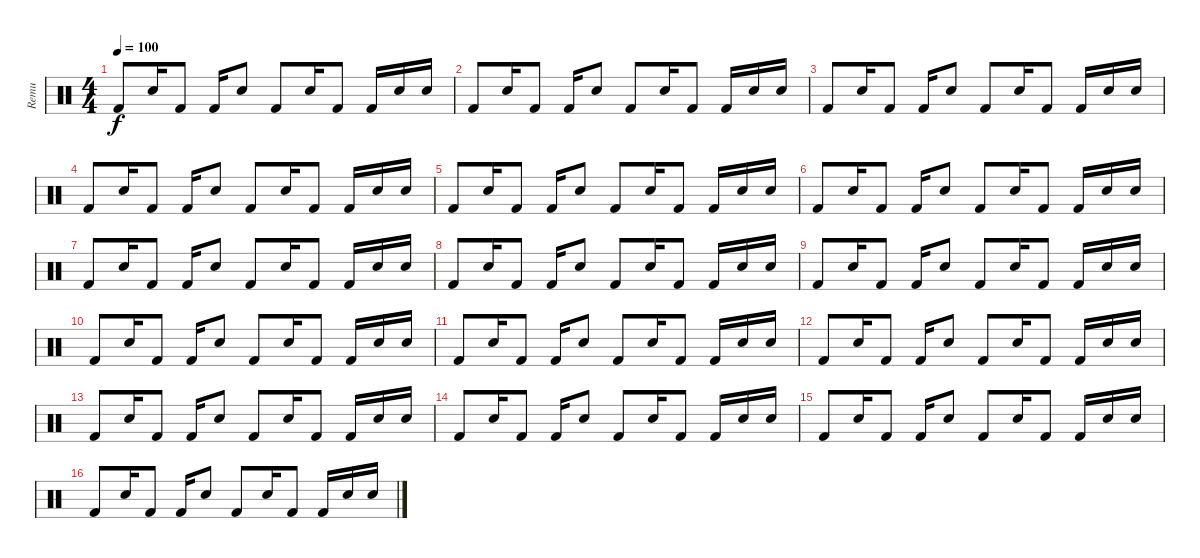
\track ("Remu" "Remu") {instrument percussion}
\staff {score}
\articulation defaults
\ts (4 4)
\tempo 100
\clef neutral
\ks c "Kick (hit) 2".8{dy f} "Snare (hit) 2".16 "Kick (hit) 2".8 "Kick (hit) 2".16 "Snare (hit) 2".8 "Kick (hit) 2".8 "Snare (hit) 2".16 "Kick (hit) 2".8 "Kick (hit) 2".16 "Snare (hit) 2".16 "Snare (hit) 2".16
|
"Kick (hit) 2".8 "Snare (hit) 2".16 "Kick (hit) 2".8 "Kick (hit) 2".16 "Snare (hit) 2".8 "Kick (hit) 2".8 "Snare (hit) 2".16 "Kick (hit) 2".8 "Kick (hit) 2".16 "Snare (hit) 2".16 "Snare (hit) 2".16 |
"Kick (hit) 2".8 "Snare (hit) 2".16 "Kick (hit) 2".8 "Kick (hit) 2".16 "Snare (hit) 2".8 "Kick (hit) 2".8 "Snare (hit) 2".16 "Kick (hit) 2".8 "Kick (hit) 2".16 "Snare (hit) 2".16 "Snare (hit) 2".16 |
"Kick (hit) 2".8 "Snare (hit) 2".16 "Kick (hit) 2".8 "Kick (hit) 2".16 "Snare (hit) 2".8 "Kick (hit) 2".8 "Snare (hit) 2".16 "Kick (hit) 2".8 "Kick (hit) 2".16 "Snare (hit) 2".16 "Snare (hit) 2".16 |
"Kick (hit) 2".8 "Snare (hit) 2".16 "Kick (hit) 2".8 "Kick (hit) 2".16 "Snare (hit) 2".8 "Kick (hit) 2".8 "Snare (hit) 2".16 "Kick (hit) 2".8 "Kick (hit) 2".16 "Snare (hit) 2".16 "Snare (hit) 2".16 |
"Kick (hit) 2".8 "Snare (hit) 2".16 "Kick (hit) 2".8 "Kick (hit) 2".16 "Snare (hit) 2".8 "Kick (hit) 2".8 "Snare (hit) 2".16 "Kick (hit) 2".8 "Kick (hit) 2".16 "Snare (hit) 2".16 "Snare (hit) 2".16 |
"Kick (hit) 2".8 "Snare (hit) 2".16 "Kick (hit) 2".8 "Kick (hit) 2".16 "Snare (hit) 2".8 "Kick (hit) 2".8 "Snare (hit) 2".16 "Kick (hit) 2".8 "Kick (hit) 2".16 "Snare (hit) 2".16 "Snare (hit) 2".16 |
"Kick (hit) 2".8 "Snare (hit) 2".16 "Kick (hit) 2".8 "Kick (hit) 2".16 "Snare (hit) 2".8 "Kick (hit) 2".8 "Snare (hit) 2".16 "Kick (hit) 2".8 "Kick (hit) 2".16 "Snare (hit) 2".16 "Snare (hit) 2".16 |
"Kick (hit) 2".8 "Snare (hit) 2".16 "Kick (hit) 2".8 "Kick (hit) 2".16 "Snare (hit) 2".8 "Kick (hit) 2".8 "Snare (hit) 2".16 "Kick (hit) 2".8 "Kick (hit) 2".16 "Snare (hit) 2".16 "Snare (hit) 2".16 |
"Kick (hit) 2".8 "Snare (hit) 2".16 "Kick (hit) 2".8 "Kick (hit) 2".16 "Snare (hit) 2".8 "Kick (hit) 2".8 "Snare (hit) 2".16 "Kick (hit) 2".8 "Kick (hit) 2".16 "Snare (hit) 2".16 "Snare (hit) 2".16 |
"Kick (hit) 2".8 "Snare (hit) 2".16 "Kick (hit) 2".8 "Kick (hit) 2".16 "Snare (hit) 2".8 "Kick (hit) 2".8 "Snare (hit) 2".16 "Kick (hit) 2".8 "Kick (hit) 2".16 "Snare (hit) 2".16 "Snare (hit) 2".16 |
"Kick (hit) 2".8 "Snare (hit) 2".16 "Kick (hit) 2".8 "Kick (hit) 2".16 "Snare (hit) 2".8 "Kick (hit) 2".8 "Snare (hit) 2".16 "Kick (hit) 2".8 "Kick (hit) 2".16 "Snare (hit) 2".16 "Snare (hit) 2".16 |
"Kick (hit) 2".8 "Snare (hit) 2".16 "Kick (hit) 2".8 "Kick (hit) 2".16 "Snare (hit) 2".8 "Kick (hit) 2".8 "Snare (hit) 2".16 "Kick (hit) 2".8 "Kick (hit) 2".16 "Snare (hit) 2".16 "Snare (hit) 2".16 |
"Kick (hit) 2".8 "Snare (hit) 2".16 "Kick (hit) 2".8 "Kick (hit) 2".16 "Snare (hit) 2".8 "Kick (hit) 2".8 "Snare (hit) 2".16 "Kick (hit) 2".8 "Kick (hit) 2".16 "Snare (hit) 2".16 "Snare (hit) 2".16 |
"Kick (hit) 2".8 "Snare (hit) 2".16 "Kick (hit) 2".8 "Kick (hit) 2".16 "Snare (hit) 2".8 "Kick (hit) 2".8 "Snare (hit) 2".16 "Kick (hit) 2".8 "Kick (hit) 2".16 "Snare (hit) 2".16 "Snare (hit) 2".16 |
"Kick (hit) 2".8 "Snare (hit) 2".16 "Kick (hit) 2".8 "Kick (hit) 2".16 "Snare (hit) 2".8 "Kick (hit) 2".8 "Snare (hit) 2".16 "Kick (hit) 2".8 "Kick (hit) 2".16 "Snare (hit) 2".16 "Snare (hit) 2".16
